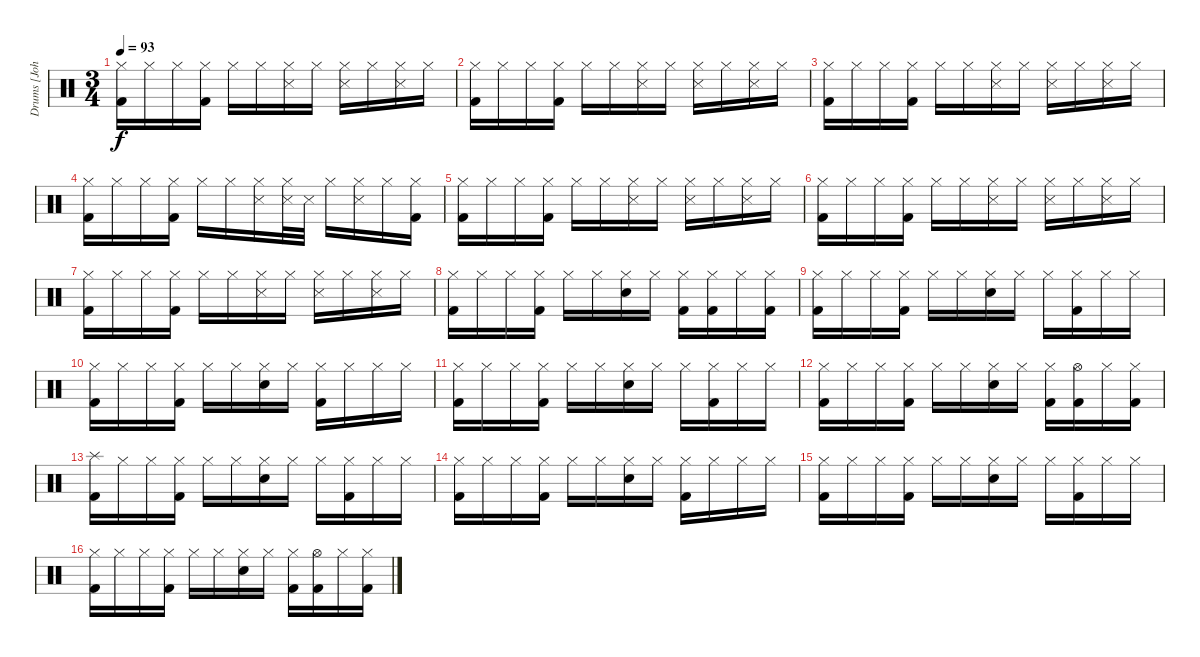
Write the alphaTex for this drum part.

\track ("Drums [John Otto]" "Drums [Joh") {instrument percussion}
\staff {score}
\articulation defaults
\ts (3 4)
\tempo 93
\clef neutral
\ks c
("Hi-Hat (closed)" "Kick (hit) 2").16{dy f} "Hi-Hat (closed)".16 "Hi-Hat (closed)".16 ("Hi-Hat (closed)" "Kick (hit) 2").16 "Hi-Hat (closed)".16 "Hi-Hat (closed)".16 ("Hi-Hat (closed)" "Snare (side stick) 3").16 "Hi-Hat (closed)".16 ("Hi-Hat (closed)" "Snare (side stick) 3").16 "Hi-Hat (closed)".16 ("Hi-Hat (closed)" "Snare (side stick) 3").16 "Hi-Hat (closed)".16 |
("Hi-Hat (closed)" "Kick (hit) 2").16 "Hi-Hat (closed)".16 "Hi-Hat (closed)".16 ("Hi-Hat (closed)" "Kick (hit) 2").16 "Hi-Hat (closed)".16 "Hi-Hat (closed)".16 ("Hi-Hat (closed)" "Snare (side stick) 3").16 "Hi-Hat (closed)".16 ("Hi-Hat (closed)" "Snare (side stick) 3").16 "Hi-Hat (closed)".16 ("Hi-Hat (closed)" "Snare (side stick) 3").16 "Hi-Hat (closed)".16 |
("Hi-Hat (closed)" "Kick (hit) 2").16 "Hi-Hat (closed)".16 "Hi-Hat (closed)".16 ("Hi-Hat (closed)" "Kick (hit) 2").16 "Hi-Hat (closed)".16 "Hi-Hat (closed)".16 ("Hi-Hat (closed)" "Snare (side stick) 3").16 "Hi-Hat (closed)".16 ("Hi-Hat (closed)" "Snare (side stick) 3").16 "Hi-Hat (closed)".16 ("Hi-Hat (closed)" "Snare (side stick) 3").16 "Hi-Hat (closed)".16 |
("Hi-Hat (closed)" "Kick (hit) 2").16 "Hi-Hat (closed)".16 "Hi-Hat (closed)".16 ("Hi-Hat (closed)" "Kick (hit) 2").16 "Hi-Hat (closed)".16 "Hi-Hat (closed)".16 ("Hi-Hat (closed)" "Snare (side stick) 3").16 ("Hi-Hat (closed)" "Snare (side stick) 3").32 "Snare (side stick) 3".32 "Hi-Hat (closed)".16 ("Hi-Hat (closed)" "Snare (side stick) 3").16 "Hi-Hat (closed)".16 ("Hi-Hat (closed)" "Kick (hit) 2").16 |
("Hi-Hat (closed)" "Kick (hit) 2").16 "Hi-Hat (closed)".16 "Hi-Hat (closed)".16 ("Hi-Hat (closed)" "Kick (hit) 2").16 "Hi-Hat (closed)".16 "Hi-Hat (closed)".16 ("Hi-Hat (closed)" "Snare (side stick) 3").16 "Hi-Hat (closed)".16 ("Hi-Hat (closed)" "Snare (side stick) 3").16 "Hi-Hat (closed)".16 ("Hi-Hat (closed)" "Snare (side stick) 3").16 "Hi-Hat (closed)".16 |
("Hi-Hat (closed)" "Kick (hit) 2").16 "Hi-Hat (closed)".16 "Hi-Hat (closed)".16 ("Hi-Hat (closed)" "Kick (hit) 2").16 "Hi-Hat (closed)".16 "Hi-Hat (closed)".16 ("Hi-Hat (closed)" "Snare (side stick) 3").16 "Hi-Hat (closed)".16 ("Hi-Hat (closed)" "Snare (side stick) 3").16 "Hi-Hat (closed)".16 ("Hi-Hat (closed)" "Snare (side stick) 3").16 "Hi-Hat (closed)".16 |
("Hi-Hat (closed)" "Kick (hit) 2").16 "Hi-Hat (closed)".16 "Hi-Hat (closed)".16 ("Hi-Hat (closed)" "Kick (hit) 2").16 "Hi-Hat (closed)".16 "Hi-Hat (closed)".16 ("Hi-Hat (closed)" "Snare (side stick) 3").16 "Hi-Hat (closed)".16 ("Hi-Hat (closed)" "Snare (side stick) 3").16 "Hi-Hat (closed)".16 ("Hi-Hat (closed)" "Snare (side stick) 3").16 "Hi-Hat (closed)".16 |
("Hi-Hat (closed)" "Kick (hit) 2").16 "Hi-Hat (closed)".16 "Hi-Hat (closed)".16 ("Hi-Hat (closed)" "Kick (hit) 2").16 "Hi-Hat (closed)".16 "Hi-Hat (closed)".16 ("Hi-Hat (closed)" "Electric Snare (hit)").16 "Hi-Hat (closed)".16 ("Hi-Hat (closed)" "Kick (hit) 2").16 ("Hi-Hat (closed)" "Kick (hit) 2").16 "Hi-Hat (closed)".16 ("Hi-Hat (closed)" "Kick (hit) 2").16 |
("Hi-Hat (closed)" "Kick (hit) 2").16 "Hi-Hat (closed)".16 "Hi-Hat (closed)".16 ("Hi-Hat (closed)" "Kick (hit) 2").16 "Hi-Hat (closed)".16 "Hi-Hat (closed)".16 ("Hi-Hat (closed)" "Electric Snare (hit)").16 "Hi-Hat (closed)".16 "Hi-Hat (closed)".16 ("Hi-Hat (closed)" "Kick (hit) 2").16 "Hi-Hat (closed)".16 "Hi-Hat (closed)".16 |
("Hi-Hat (closed)" "Kick (hit) 2").16 "Hi-Hat (closed)".16 "Hi-Hat (closed)".16 ("Hi-Hat (closed)" "Kick (hit) 2").16 "Hi-Hat (closed)".16 "Hi-Hat (closed)".16 ("Hi-Hat (closed)" "Electric Snare (hit)").16 "Hi-Hat (closed)".16 ("Hi-Hat (closed)" "Kick (hit) 2").16 "Hi-Hat (closed)".16 "Hi-Hat (closed)".16 "Hi-Hat (closed)".16 |
("Hi-Hat (closed)" "Kick (hit) 2").16 "Hi-Hat (closed)".16 "Hi-Hat (closed)".16 ("Hi-Hat (closed)" "Kick (hit) 2").16 "Hi-Hat (closed)".16 "Hi-Hat (closed)".16 ("Hi-Hat (closed)" "Electric Snare (hit)").16 "Hi-Hat (closed)".16 "Hi-Hat (closed)".16 ("Hi-Hat (closed)" "Kick (hit) 2").16 "Hi-Hat (closed)".16 "Hi-Hat (closed)".16 |
("Hi-Hat (closed)" "Kick (hit) 2").16 "Hi-Hat (closed)".16 "Hi-Hat (closed)".16 ("Hi-Hat (closed)" "Kick (hit) 2").16 "Hi-Hat (closed)".16 "Hi-Hat (closed)".16 ("Hi-Hat (closed)" "Electric Snare (hit)").16 "Hi-Hat (closed)".16 ("Hi-Hat (closed)" "Kick (hit) 2").16 ("Hi-Hat (open)" "Kick (hit) 2").16 "Hi-Hat (closed)".16 ("Hi-Hat (closed)" "Kick (hit) 2").16 |
("Splash (hit)" "Kick (hit) 2").16 "Hi-Hat (closed)".16 "Hi-Hat (closed)".16 ("Hi-Hat (closed)" "Kick (hit) 2").16 "Hi-Hat (closed)".16 "Hi-Hat (closed)".16 ("Hi-Hat (closed)" "Electric Snare (hit)").16 "Hi-Hat (closed)".16 "Hi-Hat (closed)".16 ("Hi-Hat (closed)" "Kick (hit) 2").16 "Hi-Hat (closed)".16 "Hi-Hat (closed)".16 |
("Hi-Hat (closed)" "Kick (hit) 2").16 "Hi-Hat (closed)".16 "Hi-Hat (closed)".16 ("Hi-Hat (closed)" "Kick (hit) 2").16 "Hi-Hat (closed)".16 "Hi-Hat (closed)".16 ("Hi-Hat (closed)" "Electric Snare (hit)").16 "Hi-Hat (closed)".16 ("Hi-Hat (closed)" "Kick (hit) 2").16 "Hi-Hat (closed)".16 "Hi-Hat (closed)".16 "Hi-Hat (closed)".16 |
("Hi-Hat (closed)" "Kick (hit) 2").16 "Hi-Hat (closed)".16 "Hi-Hat (closed)".16 ("Hi-Hat (closed)" "Kick (hit) 2").16 "Hi-Hat (closed)".16 "Hi-Hat (closed)".16 ("Hi-Hat (closed)" "Electric Snare (hit)").16 "Hi-Hat (closed)".16 "Hi-Hat (closed)".16 ("Hi-Hat (closed)" "Kick (hit) 2").16 "Hi-Hat (closed)".16 "Hi-Hat (closed)".16 |
("Hi-Hat (closed)" "Kick (hit) 2").16 "Hi-Hat (closed)".16 "Hi-Hat (closed)".16 ("Hi-Hat (closed)" "Kick (hit) 2").16 "Hi-Hat (closed)".16 "Hi-Hat (closed)".16 ("Hi-Hat (closed)" "Electric Snare (hit)").16 "Hi-Hat (closed)".16 ("Hi-Hat (closed)" "Kick (hit) 2").16 ("Hi-Hat (open)" "Kick (hit) 2").16 "Hi-Hat (closed)".16 ("Hi-Hat (closed)" "Kick (hit) 2").16
